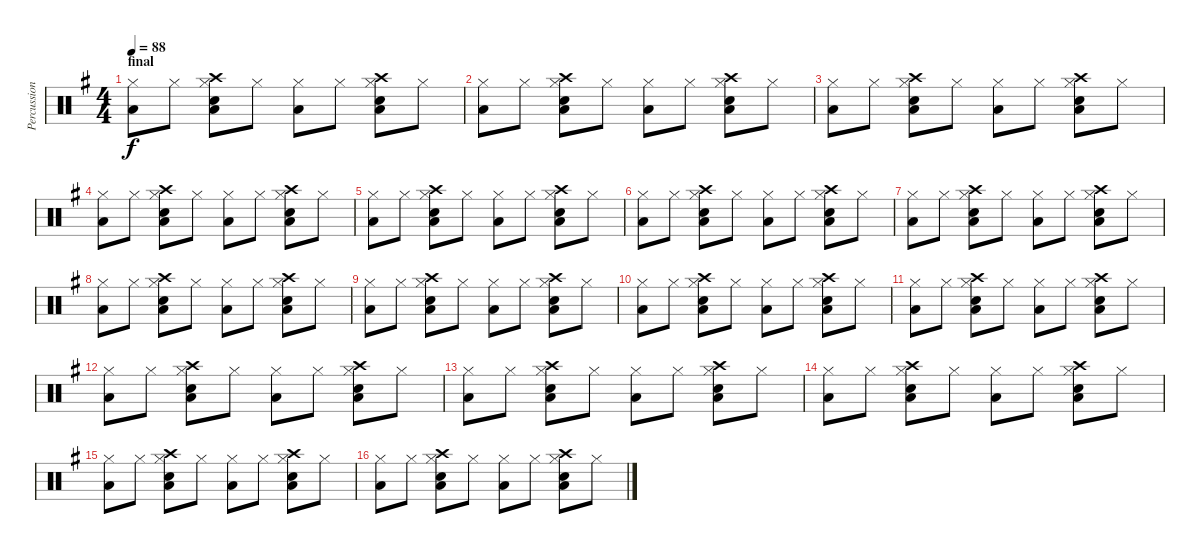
\track ("Percussions" "Percussion") {instrument percussion}
\staff {score}
\articulation defaults
\ts (4 4)
\section ("" "final")
\tempo 88
\clef neutral
\ks g
("Hi-Hat (closed)" "Low Floor Tom (hit)").8{dy f} "Hi-Hat (closed)".8 ("Snare (hit) 2" "Low Floor Tom (hit)" "Hi-Hat (closed)" "Crash high (hit)").8 "Hi-Hat (closed)".8 ("Hi-Hat (closed)" "Low Floor Tom (hit)").8 "Hi-Hat (closed)".8 ("Snare (hit) 2" "Low Floor Tom (hit)" "Hi-Hat (closed)" "Crash high (hit)").8 "Hi-Hat (closed)".8 |
("Hi-Hat (closed)" "Low Floor Tom (hit)").8 "Hi-Hat (closed)".8 ("Snare (hit) 2" "Low Floor Tom (hit)" "Hi-Hat (closed)" "Crash high (hit)").8 "Hi-Hat (closed)".8 ("Hi-Hat (closed)" "Low Floor Tom (hit)").8 "Hi-Hat (closed)".8 ("Snare (hit) 2" "Low Floor Tom (hit)" "Hi-Hat (closed)" "Crash high (hit)").8 "Hi-Hat (closed)".8 |
("Hi-Hat (closed)" "Low Floor Tom (hit)").8 "Hi-Hat (closed)".8 ("Snare (hit) 2" "Low Floor Tom (hit)" "Hi-Hat (closed)" "Crash high (hit)").8 "Hi-Hat (closed)".8 ("Hi-Hat (closed)" "Low Floor Tom (hit)").8 "Hi-Hat (closed)".8 ("Snare (hit) 2" "Low Floor Tom (hit)" "Hi-Hat (closed)" "Crash high (hit)").8 "Hi-Hat (closed)".8 |
("Hi-Hat (closed)" "Low Floor Tom (hit)").8 "Hi-Hat (closed)".8 ("Snare (hit) 2" "Low Floor Tom (hit)" "Hi-Hat (closed)" "Crash high (hit)").8 "Hi-Hat (closed)".8 ("Hi-Hat (closed)" "Low Floor Tom (hit)").8 "Hi-Hat (closed)".8 ("Snare (hit) 2" "Low Floor Tom (hit)" "Hi-Hat (closed)" "Crash high (hit)").8 "Hi-Hat (closed)".8 |
("Hi-Hat (closed)" "Low Floor Tom (hit)").8 "Hi-Hat (closed)".8 ("Snare (hit) 2" "Low Floor Tom (hit)" "Hi-Hat (closed)" "Crash high (hit)").8 "Hi-Hat (closed)".8 ("Hi-Hat (closed)" "Low Floor Tom (hit)").8 "Hi-Hat (closed)".8 ("Snare (hit) 2" "Low Floor Tom (hit)" "Hi-Hat (closed)" "Crash high (hit)").8 "Hi-Hat (closed)".8 |
("Hi-Hat (closed)" "Low Floor Tom (hit)").8 "Hi-Hat (closed)".8 ("Snare (hit) 2" "Low Floor Tom (hit)" "Hi-Hat (closed)" "Crash high (hit)").8 "Hi-Hat (closed)".8 ("Hi-Hat (closed)" "Low Floor Tom (hit)").8 "Hi-Hat (closed)".8 ("Snare (hit) 2" "Low Floor Tom (hit)" "Hi-Hat (closed)" "Crash high (hit)").8 "Hi-Hat (closed)".8 |
("Hi-Hat (closed)" "Low Floor Tom (hit)").8 "Hi-Hat (closed)".8 ("Snare (hit) 2" "Low Floor Tom (hit)" "Hi-Hat (closed)" "Crash high (hit)").8 "Hi-Hat (closed)".8 ("Hi-Hat (closed)" "Low Floor Tom (hit)").8 "Hi-Hat (closed)".8 ("Snare (hit) 2" "Low Floor Tom (hit)" "Hi-Hat (closed)" "Crash high (hit)").8 "Hi-Hat (closed)".8 |
("Hi-Hat (closed)" "Low Floor Tom (hit)").8 "Hi-Hat (closed)".8 ("Snare (hit) 2" "Low Floor Tom (hit)" "Hi-Hat (closed)" "Crash high (hit)").8 "Hi-Hat (closed)".8 ("Hi-Hat (closed)" "Low Floor Tom (hit)").8 "Hi-Hat (closed)".8 ("Snare (hit) 2" "Low Floor Tom (hit)" "Hi-Hat (closed)" "Crash high (hit)").8 "Hi-Hat (closed)".8 |
("Hi-Hat (closed)" "Low Floor Tom (hit)").8 "Hi-Hat (closed)".8 ("Snare (hit) 2" "Low Floor Tom (hit)" "Hi-Hat (closed)" "Crash high (hit)").8 "Hi-Hat (closed)".8 ("Hi-Hat (closed)" "Low Floor Tom (hit)").8 "Hi-Hat (closed)".8 ("Snare (hit) 2" "Low Floor Tom (hit)" "Hi-Hat (closed)" "Crash high (hit)").8 "Hi-Hat (closed)".8 |
("Hi-Hat (closed)" "Low Floor Tom (hit)").8 "Hi-Hat (closed)".8 ("Snare (hit) 2" "Low Floor Tom (hit)" "Hi-Hat (closed)" "Crash high (hit)").8 "Hi-Hat (closed)".8 ("Hi-Hat (closed)" "Low Floor Tom (hit)").8 "Hi-Hat (closed)".8 ("Snare (hit) 2" "Low Floor Tom (hit)" "Hi-Hat (closed)" "Crash high (hit)").8 "Hi-Hat (closed)".8 |
("Hi-Hat (closed)" "Low Floor Tom (hit)").8 "Hi-Hat (closed)".8 ("Snare (hit) 2" "Low Floor Tom (hit)" "Hi-Hat (closed)" "Crash high (hit)").8 "Hi-Hat (closed)".8 ("Hi-Hat (closed)" "Low Floor Tom (hit)").8 "Hi-Hat (closed)".8 ("Snare (hit) 2" "Low Floor Tom (hit)" "Hi-Hat (closed)" "Crash high (hit)").8 "Hi-Hat (closed)".8 |
("Hi-Hat (closed)" "Low Floor Tom (hit)").8 "Hi-Hat (closed)".8 ("Snare (hit) 2" "Low Floor Tom (hit)" "Hi-Hat (closed)" "Crash high (hit)").8 "Hi-Hat (closed)".8 ("Hi-Hat (closed)" "Low Floor Tom (hit)").8 "Hi-Hat (closed)".8 ("Snare (hit) 2" "Low Floor Tom (hit)" "Hi-Hat (closed)" "Crash high (hit)").8 "Hi-Hat (closed)".8 |
("Hi-Hat (closed)" "Low Floor Tom (hit)").8 "Hi-Hat (closed)".8 ("Snare (hit) 2" "Low Floor Tom (hit)" "Hi-Hat (closed)" "Crash high (hit)").8 "Hi-Hat (closed)".8 ("Hi-Hat (closed)" "Low Floor Tom (hit)").8 "Hi-Hat (closed)".8 ("Snare (hit) 2" "Low Floor Tom (hit)" "Hi-Hat (closed)" "Crash high (hit)").8 "Hi-Hat (closed)".8 |
("Hi-Hat (closed)" "Low Floor Tom (hit)").8 "Hi-Hat (closed)".8 ("Snare (hit) 2" "Low Floor Tom (hit)" "Hi-Hat (closed)" "Crash high (hit)").8 "Hi-Hat (closed)".8 ("Hi-Hat (closed)" "Low Floor Tom (hit)").8 "Hi-Hat (closed)".8 ("Snare (hit) 2" "Low Floor Tom (hit)" "Hi-Hat (closed)" "Crash high (hit)").8 "Hi-Hat (closed)".8 |
("Hi-Hat (closed)" "Low Floor Tom (hit)").8 "Hi-Hat (closed)".8 ("Snare (hit) 2" "Low Floor Tom (hit)" "Hi-Hat (closed)" "Crash high (hit)").8 "Hi-Hat (closed)".8 ("Hi-Hat (closed)" "Low Floor Tom (hit)").8 "Hi-Hat (closed)".8 ("Snare (hit) 2" "Low Floor Tom (hit)" "Hi-Hat (closed)" "Crash high (hit)").8 "Hi-Hat (closed)".8 |
("Hi-Hat (closed)" "Low Floor Tom (hit)").8 "Hi-Hat (closed)".8 ("Snare (hit) 2" "Low Floor Tom (hit)" "Hi-Hat (closed)" "Crash high (hit)").8 "Hi-Hat (closed)".8 ("Hi-Hat (closed)" "Low Floor Tom (hit)").8 "Hi-Hat (closed)".8 ("Snare (hit) 2" "Low Floor Tom (hit)" "Hi-Hat (closed)" "Crash high (hit)").8 "Hi-Hat (closed)".8
